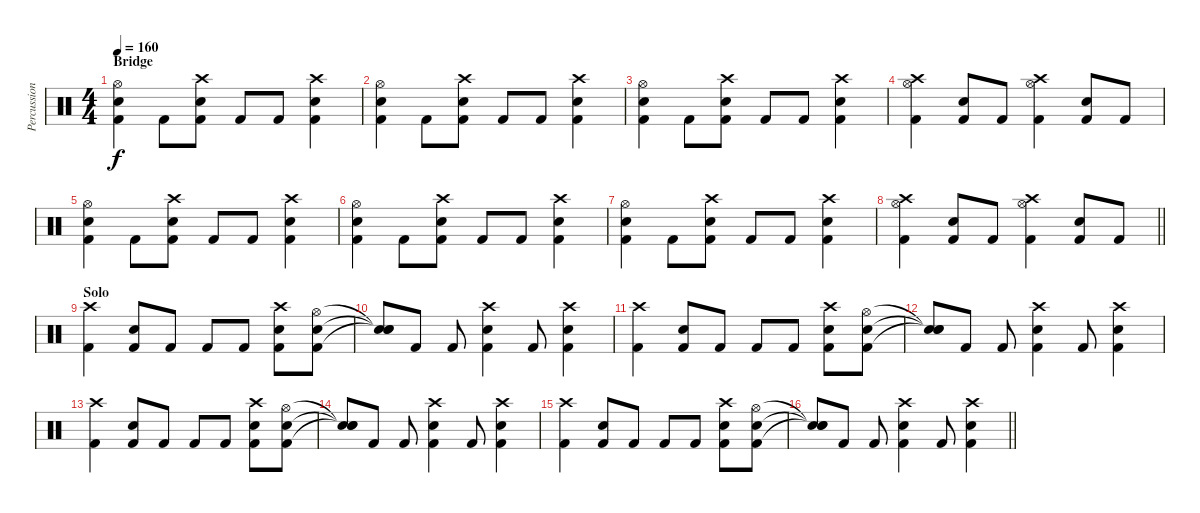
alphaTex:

\track ("Percussion" "Percussion") {instrument percussion}
\staff {score}
\articulation defaults
\ts (4 4)
\section ("" "Bridge")
\tempo 160
\clef neutral
\ks c
("Hi-Hat (open)" "Snare (hit) 2" "Kick (hit) 2").4{dy f} "Kick (hit) 2".8 ("Crash high (hit)" "Snare (hit) 2" "Kick (hit) 2").8 "Kick (hit) 2".8 "Kick (hit) 2".8 ("Crash high (hit)" "Snare (hit) 2" "Kick (hit) 2").4 |
("Hi-Hat (open)" "Snare (hit) 2" "Kick (hit) 2").4 "Kick (hit) 2".8 ("Crash high (hit)" "Snare (hit) 2" "Kick (hit) 2").8 "Kick (hit) 2".8 "Kick (hit) 2".8 ("Crash high (hit)" "Snare (hit) 2" "Kick (hit) 2").4 |
("Hi-Hat (open)" "Snare (hit) 2" "Kick (hit) 2").4 "Kick (hit) 2".8 ("Crash high (hit)" "Snare (hit) 2" "Kick (hit) 2").8 "Kick (hit) 2".8 "Kick (hit) 2".8 ("Crash high (hit)" "Snare (hit) 2" "Kick (hit) 2").4 |
("Crash high (hit)" "Hi-Hat (open)" "Kick (hit) 2").4 ("Snare (hit) 2" "Kick (hit) 2").8 "Kick (hit) 2".8 ("Crash high (hit)" "Hi-Hat (open)" "Kick (hit) 2").4 ("Snare (hit) 2" "Kick (hit) 2").8 "Kick (hit) 2".8 |
("Hi-Hat (open)" "Snare (hit) 2" "Kick (hit) 2").4 "Kick (hit) 2".8 ("Crash high (hit)" "Snare (hit) 2" "Kick (hit) 2").8 "Kick (hit) 2".8 "Kick (hit) 2".8 ("Crash high (hit)" "Snare (hit) 2" "Kick (hit) 2").4 |
("Hi-Hat (open)" "Snare (hit) 2" "Kick (hit) 2").4 "Kick (hit) 2".8 ("Crash high (hit)" "Snare (hit) 2" "Kick (hit) 2").8 "Kick (hit) 2".8 "Kick (hit) 2".8 ("Crash high (hit)" "Snare (hit) 2" "Kick (hit) 2").4 |
("Hi-Hat (open)" "Snare (hit) 2" "Kick (hit) 2").4 "Kick (hit) 2".8 ("Crash high (hit)" "Snare (hit) 2" "Kick (hit) 2").8 "Kick (hit) 2".8 "Kick (hit) 2".8 ("Crash high (hit)" "Snare (hit) 2" "Kick (hit) 2").4 |
\barLineRight lightlight
("Crash high (hit)" "Hi-Hat (open)" "Kick (hit) 2").4 ("Snare (hit) 2" "Kick (hit) 2").8 "Kick (hit) 2".8 ("Crash high (hit)" "Hi-Hat (open)" "Kick (hit) 2").4 ("Snare (hit) 2" "Kick (hit) 2").8 "Kick (hit) 2".8 |
\section ("" "Solo")
("Crash high (hit)" "Kick (hit) 2").4 ("Snare (hit) 2" "Kick (hit) 2").8 "Kick (hit) 2".8 "Kick (hit) 2".8 "Kick (hit) 2".8 ("Crash high (hit)" "Snare (hit) 2" "Kick (hit) 2").8 ("Hi-Hat (open)" "Snare (hit) 2" "Kick (hit) 2").8 |
("Snare (hit)"{t} "Snare (hit)"{t} "Snare (hit)"{t}).8 "Kick (hit) 2".8 "Kick (hit) 2".8 ("Crash high (hit)" "Snare (hit) 2" "Kick (hit) 2").4 "Kick (hit) 2".8 ("Crash high (hit)" "Snare (hit) 2" "Kick (hit) 2").4 |
("Crash high (hit)" "Kick (hit) 2").4 ("Snare (hit) 2" "Kick (hit) 2").8 "Kick (hit) 2".8 "Kick (hit) 2".8 "Kick (hit) 2".8 ("Crash high (hit)" "Snare (hit) 2" "Kick (hit) 2").8 ("Hi-Hat (open)" "Snare (hit) 2" "Kick (hit) 2").8 |
("Snare (hit)"{t} "Snare (hit)"{t} "Snare (hit)"{t}).8 "Kick (hit) 2".8 "Kick (hit) 2".8 ("Crash high (hit)" "Snare (hit) 2" "Kick (hit) 2").4 "Kick (hit) 2".8 ("Crash high (hit)" "Snare (hit) 2" "Kick (hit) 2").4 |
("Crash high (hit)" "Kick (hit) 2").4 ("Snare (hit) 2" "Kick (hit) 2").8 "Kick (hit) 2".8 "Kick (hit) 2".8 "Kick (hit) 2".8 ("Crash high (hit)" "Snare (hit) 2" "Kick (hit) 2").8 ("Hi-Hat (open)" "Snare (hit) 2" "Kick (hit) 2").8 |
("Snare (hit)"{t} "Snare (hit)"{t} "Snare (hit)"{t}).8 "Kick (hit) 2".8 "Kick (hit) 2".8 ("Crash high (hit)" "Snare (hit) 2" "Kick (hit) 2").4 "Kick (hit) 2".8 ("Crash high (hit)" "Snare (hit) 2" "Kick (hit) 2").4 |
("Crash high (hit)" "Kick (hit) 2").4 ("Snare (hit) 2" "Kick (hit) 2").8 "Kick (hit) 2".8 "Kick (hit) 2".8 "Kick (hit) 2".8 ("Crash high (hit)" "Snare (hit) 2" "Kick (hit) 2").8 ("Hi-Hat (open)" "Snare (hit) 2" "Kick (hit) 2").8 |
\barLineRight lightlight
("Snare (hit)"{t} "Snare (hit)"{t} "Snare (hit)"{t}).8 "Kick (hit) 2".8 "Kick (hit) 2".8 ("Crash high (hit)" "Snare (hit) 2" "Kick (hit) 2").4 "Kick (hit) 2".8 ("Crash high (hit)" "Snare (hit) 2" "Kick (hit) 2").4
